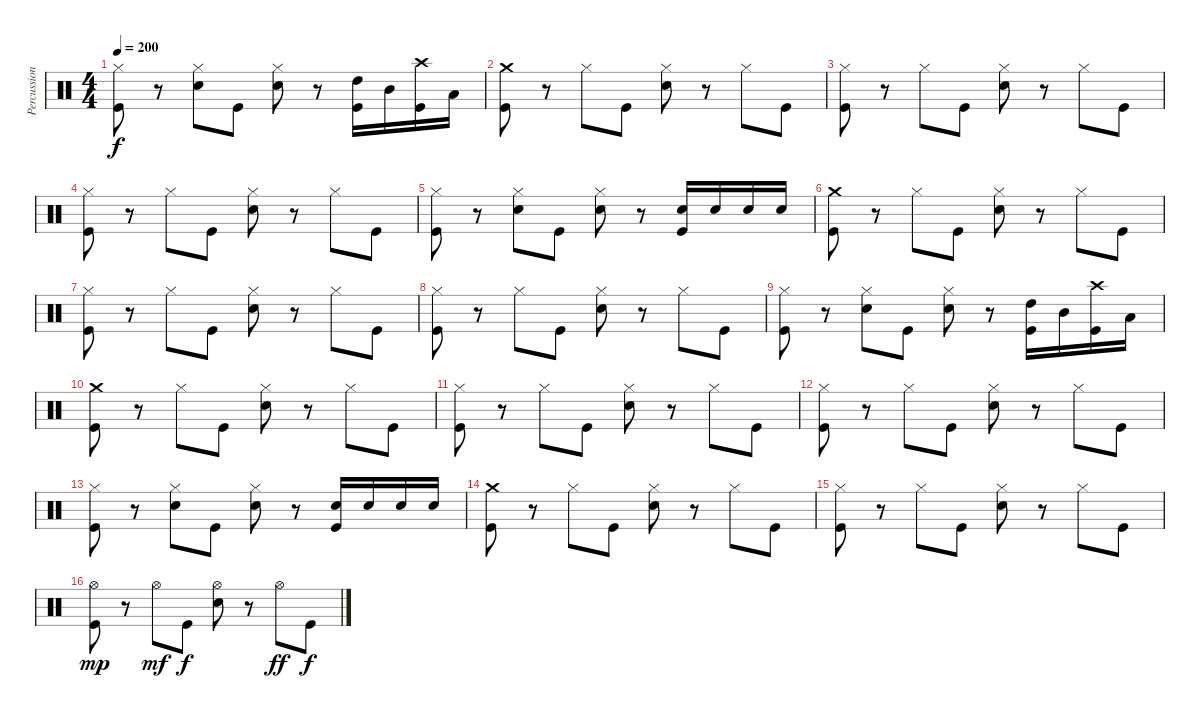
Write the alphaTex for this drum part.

\track ("Percussion" "Percussion") {instrument percussion}
\staff {score}
\articulation defaults
\ts (4 4)
\tempo 200
\clef neutral
\ks c
("Hi-Hat (closed)" "Kick (hit)").8{dy f} r.8 ("Hi-Hat (closed)" "Electric Snare (hit)").8 "Kick (hit)".8 ("Hi-Hat (closed)" "Electric Snare (hit)").8 r.8 ("High Tom (hit)" "Kick (hit)").16 "Mid Tom (hit)".16 ("Crash high (hit)" "Kick (hit)").16 "Low Floor Tom (hit)".16 |
("Crash medium (hit)" "Kick (hit)").8 r.8 "Hi-Hat (closed)".8 "Kick (hit)".8 ("Hi-Hat (closed)" "Electric Snare (hit)").8 r.8 "Hi-Hat (closed)".8 "Kick (hit)".8 |
("Hi-Hat (closed)" "Kick (hit)").8 r.8 "Hi-Hat (closed)".8 "Kick (hit)".8 ("Hi-Hat (closed)" "Electric Snare (hit)").8 r.8 "Hi-Hat (closed)".8 "Kick (hit)".8 |
("Hi-Hat (closed)" "Kick (hit)").8 r.8 "Hi-Hat (closed)".8 "Kick (hit)".8 ("Hi-Hat (closed)" "Electric Snare (hit)").8 r.8 "Hi-Hat (closed)".8 "Kick (hit)".8 |
("Hi-Hat (closed)" "Kick (hit)").8 r.8 ("Hi-Hat (closed)" "Electric Snare (hit)").8 "Kick (hit)".8 ("Hi-Hat (closed)" "Electric Snare (hit)").8 r.8 ("Electric Snare (hit)" "Kick (hit)").16 "Electric Snare (hit)".16 "Electric Snare (hit)".16 "Electric Snare (hit)".16 |
("Crash medium (hit)" "Kick (hit)").8 r.8 "Hi-Hat (closed)".8 "Kick (hit)".8 ("Hi-Hat (closed)" "Electric Snare (hit)").8 r.8 "Hi-Hat (closed)".8 "Kick (hit)".8 |
("Hi-Hat (closed)" "Kick (hit)").8 r.8 "Hi-Hat (closed)".8 "Kick (hit)".8 ("Hi-Hat (closed)" "Electric Snare (hit)").8 r.8 "Hi-Hat (closed)".8 "Kick (hit)".8 |
("Hi-Hat (closed)" "Kick (hit)").8 r.8 "Hi-Hat (closed)".8 "Kick (hit)".8 ("Hi-Hat (closed)" "Electric Snare (hit)").8 r.8 "Hi-Hat (closed)".8 "Kick (hit)".8 |
("Hi-Hat (closed)" "Kick (hit)").8 r.8 ("Hi-Hat (closed)" "Electric Snare (hit)").8 "Kick (hit)".8 ("Hi-Hat (closed)" "Electric Snare (hit)").8 r.8 ("High Tom (hit)" "Kick (hit)").16 "Mid Tom (hit)".16 ("Crash high (hit)" "Kick (hit)").16 "Low Floor Tom (hit)".16 |
("Crash medium (hit)" "Kick (hit)").8 r.8 "Hi-Hat (closed)".8 "Kick (hit)".8 ("Hi-Hat (closed)" "Electric Snare (hit)").8 r.8 "Hi-Hat (closed)".8 "Kick (hit)".8 |
("Hi-Hat (closed)" "Kick (hit)").8 r.8 "Hi-Hat (closed)".8 "Kick (hit)".8 ("Hi-Hat (closed)" "Electric Snare (hit)").8 r.8 "Hi-Hat (closed)".8 "Kick (hit)".8 |
("Hi-Hat (closed)" "Kick (hit)").8 r.8 "Hi-Hat (closed)".8 "Kick (hit)".8 ("Hi-Hat (closed)" "Electric Snare (hit)").8 r.8 "Hi-Hat (closed)".8 "Kick (hit)".8 |
("Hi-Hat (closed)" "Kick (hit)").8 r.8 ("Hi-Hat (closed)" "Electric Snare (hit)").8 "Kick (hit)".8 ("Hi-Hat (closed)" "Electric Snare (hit)").8 r.8 ("Electric Snare (hit)" "Kick (hit)").16 "Electric Snare (hit)".16 "Electric Snare (hit)".16 "Electric Snare (hit)".16 |
("Crash medium (hit)" "Kick (hit)").8 r.8 "Hi-Hat (closed)".8 "Kick (hit)".8 ("Hi-Hat (closed)" "Electric Snare (hit)").8 r.8 "Hi-Hat (closed)".8 "Kick (hit)".8 |
("Hi-Hat (closed)" "Kick (hit)").8 r.8 "Hi-Hat (closed)".8 "Kick (hit)".8 ("Hi-Hat (closed)" "Electric Snare (hit)").8 r.8 "Hi-Hat (closed)".8 "Kick (hit)".8 |
("Hi-Hat (open)" "Kick (hit)").8{dy mp} r.8 "Hi-Hat (open)".8{dy mf} "Kick (hit)".8{dy f} ("Hi-Hat (open)" "Electric Snare (hit)").8 r.8 "Hi-Hat (open)".8{dy ff} "Kick (hit)".8{dy f}
